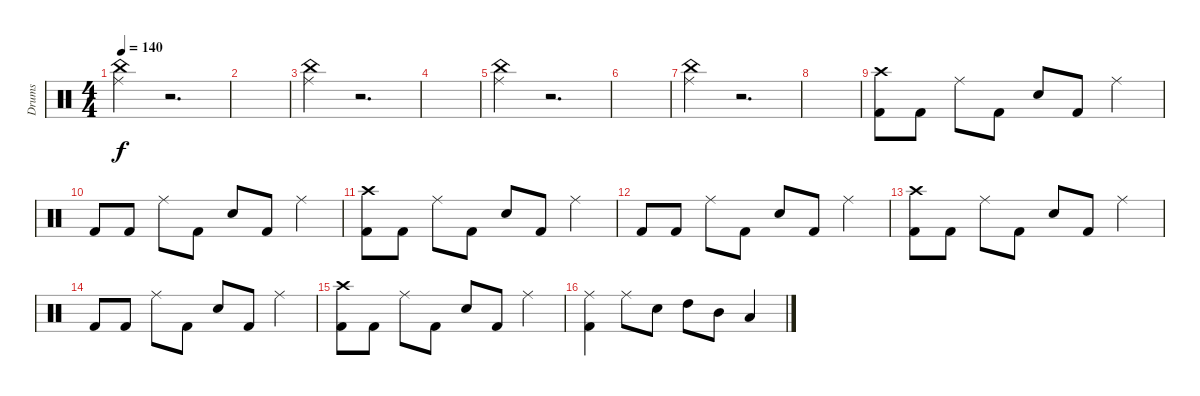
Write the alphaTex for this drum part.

\track ("Drums" "Drums") {instrument percussion}
\staff {score}
\articulation defaults
\ts (4 4)
\tempo 140
\clef neutral
\ks c
("China (hit)" "Ride (middle)").4{dy f} r.2{d} |
|
("China (hit)" "Ride (middle)").4 r.2{d} |
|
("China (hit)" "Ride (middle)").4 r.2{d} |
|
("China (hit)" "Ride (middle)").4 r.2{d} |
|
("Crash high (hit)" "Kick (hit) 2").8 "Kick (hit) 2".8 "Ride (middle)".8 "Kick (hit) 2".8 "Electric Snare (hit)".8 "Kick (hit) 2".8 "Ride (middle)".4 |
"Kick (hit) 2".8 "Kick (hit) 2".8 "Ride (middle)".8 "Kick (hit) 2".8 "Electric Snare (hit)".8 "Kick (hit) 2".8 "Ride (middle)".4 |
("Crash high (hit)" "Kick (hit) 2").8 "Kick (hit) 2".8 "Ride (middle)".8 "Kick (hit) 2".8 "Electric Snare (hit)".8 "Kick (hit) 2".8 "Ride (middle)".4 |
"Kick (hit) 2".8 "Kick (hit) 2".8 "Ride (middle)".8 "Kick (hit) 2".8 "Electric Snare (hit)".8 "Kick (hit) 2".8 "Ride (middle)".4 |
("Crash high (hit)" "Kick (hit) 2").8 "Kick (hit) 2".8 "Ride (middle)".8 "Kick (hit) 2".8 "Electric Snare (hit)".8 "Kick (hit) 2".8 "Ride (middle)".4 |
"Kick (hit) 2".8 "Kick (hit) 2".8 "Ride (middle)".8 "Kick (hit) 2".8 "Electric Snare (hit)".8 "Kick (hit) 2".8 "Ride (middle)".4 |
("Crash high (hit)" "Kick (hit) 2").8 "Kick (hit) 2".8 "Ride (middle)".8 "Kick (hit) 2".8 "Electric Snare (hit)".8 "Kick (hit) 2".8 "Ride (middle)".4 |
("Ride (middle)" "Kick (hit) 2").4 "Ride (middle)".8 "Electric Snare (hit)".8 "High Tom (hit)".8 "Mid Tom (hit)".8 "Low Tom (hit)".4
